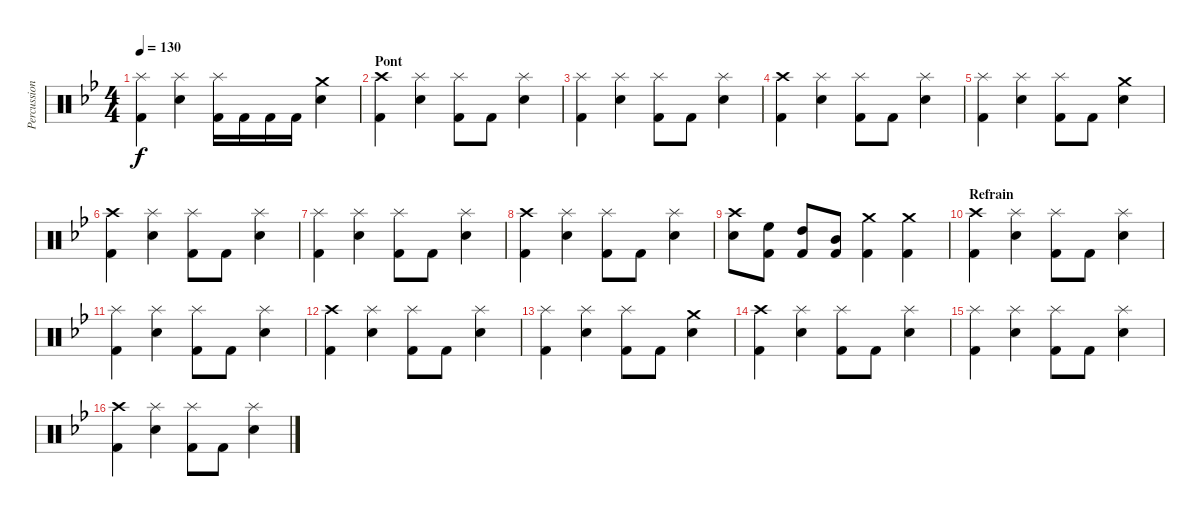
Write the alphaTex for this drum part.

\track ("Percussions" "Percussion") {instrument percussion}
\staff {score}
\articulation defaults
\ts (4 4)
\tempo 130
\clef neutral
\ks gminor
("Splash (hit)" "Kick (hit) 2").4{dy f} ("Splash (hit)" "Electric Snare (hit)").4 ("Splash (hit)" "Kick (hit) 2").16 "Kick (hit) 2".16 "Kick (hit) 2".16 "Kick (hit) 2".16 ("Crash medium (hit)" "Electric Snare (hit)").4 |
\section ("" "Pont")
("Crash high (hit)" "Kick (hit) 2").4 ("Splash (hit)" "Electric Snare (hit)").4 ("Splash (hit)" "Kick (hit) 2").8 "Kick (hit) 2".8 ("Splash (hit)" "Electric Snare (hit)").4 |
("Splash (hit)" "Kick (hit) 2").4 ("Splash (hit)" "Electric Snare (hit)").4 ("Splash (hit)" "Kick (hit) 2").8 "Kick (hit) 2".8 ("Splash (hit)" "Electric Snare (hit)").4 |
("Crash high (hit)" "Kick (hit) 2").4 ("Splash (hit)" "Electric Snare (hit)").4 ("Splash (hit)" "Kick (hit) 2").8 "Kick (hit) 2".8 ("Splash (hit)" "Electric Snare (hit)").4 |
("Splash (hit)" "Kick (hit) 2").4 ("Splash (hit)" "Electric Snare (hit)").4 ("Splash (hit)" "Kick (hit) 2").8 "Kick (hit) 2".8 ("Crash medium (hit)" "Electric Snare (hit)").4 |
("Crash high (hit)" "Kick (hit) 2").4 ("Splash (hit)" "Electric Snare (hit)").4 ("Splash (hit)" "Kick (hit) 2").8 "Kick (hit) 2".8 ("Splash (hit)" "Electric Snare (hit)").4 |
("Splash (hit)" "Kick (hit) 2").4 ("Splash (hit)" "Electric Snare (hit)").4 ("Splash (hit)" "Kick (hit) 2").8 "Kick (hit) 2".8 ("Splash (hit)" "Electric Snare (hit)").4 |
("Crash high (hit)" "Kick (hit) 2").4 ("Splash (hit)" "Electric Snare (hit)").4 ("Splash (hit)" "Kick (hit) 2").8 "Kick (hit) 2".8 ("Splash (hit)" "Electric Snare (hit)").4 |
("Crash high (hit)" "Electric Snare (hit)").8 ("High Floor Tom (hit)" "Kick (hit) 2").8 ("High Tom (hit)" "Kick (hit) 2").8 ("Mid Tom (hit)" "Kick (hit) 2").8 ("Crash medium (hit)" "Kick (hit) 2").4 ("Crash medium (hit)" "Kick (hit) 2").4 |
\section ("" "Refrain")
("Crash high (hit)" "Kick (hit) 2").4 ("Splash (hit)" "Electric Snare (hit)").4 ("Splash (hit)" "Kick (hit) 2").8 "Kick (hit) 2".8 ("Splash (hit)" "Electric Snare (hit)").4 |
("Splash (hit)" "Kick (hit) 2").4 ("Splash (hit)" "Electric Snare (hit)").4 ("Splash (hit)" "Kick (hit) 2").8 "Kick (hit) 2".8 ("Splash (hit)" "Electric Snare (hit)").4 |
("Crash high (hit)" "Kick (hit) 2").4 ("Splash (hit)" "Electric Snare (hit)").4 ("Splash (hit)" "Kick (hit) 2").8 "Kick (hit) 2".8 ("Splash (hit)" "Electric Snare (hit)").4 |
("Splash (hit)" "Kick (hit) 2").4 ("Splash (hit)" "Electric Snare (hit)").4 ("Splash (hit)" "Kick (hit) 2").8 "Kick (hit) 2".8 ("Crash medium (hit)" "Electric Snare (hit)").4 |
("Crash high (hit)" "Kick (hit) 2").4 ("Splash (hit)" "Electric Snare (hit)").4 ("Splash (hit)" "Kick (hit) 2").8 "Kick (hit) 2".8 ("Splash (hit)" "Electric Snare (hit)").4 |
("Splash (hit)" "Kick (hit) 2").4 ("Splash (hit)" "Electric Snare (hit)").4 ("Splash (hit)" "Kick (hit) 2").8 "Kick (hit) 2".8 ("Splash (hit)" "Electric Snare (hit)").4 |
("Crash high (hit)" "Kick (hit) 2").4 ("Splash (hit)" "Electric Snare (hit)").4 ("Splash (hit)" "Kick (hit) 2").8 "Kick (hit) 2".8 ("Splash (hit)" "Electric Snare (hit)").4
